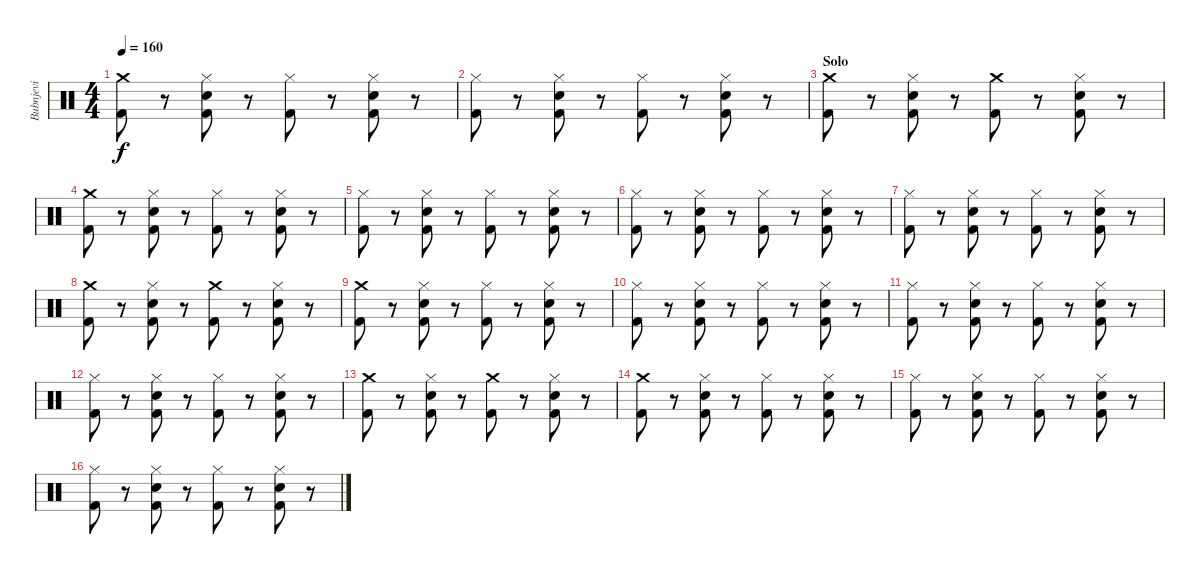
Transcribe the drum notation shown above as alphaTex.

\track ("Bubnjevi" "Bubnjevi") {instrument percussion}
\staff {score}
\articulation defaults
\ts (4 4)
\tempo 160
\clef neutral
\ks c
("Crash medium (hit)" "Kick (hit) 2").8{dy f} r.8 ("Electric Snare (hit)" "Hi-Hat (closed)" "Kick (hit) 2").8 r.8 ("Hi-Hat (closed)" "Kick (hit) 2").8 r.8 ("Electric Snare (hit)" "Hi-Hat (closed)" "Kick (hit) 2").8 r.8 |
("Hi-Hat (closed)" "Kick (hit) 2").8 r.8 ("Electric Snare (hit)" "Hi-Hat (closed)" "Kick (hit) 2").8 r.8 ("Hi-Hat (closed)" "Kick (hit) 2").8 r.8 ("Electric Snare (hit)" "Hi-Hat (closed)" "Kick (hit) 2").8 r.8 |
\section ("" "Solo")
("Crash medium (hit)" "Kick (hit) 2").8 r.8 ("Electric Snare (hit)" "Hi-Hat (closed)" "Kick (hit) 2").8 r.8 ("Crash medium (hit)" "Kick (hit) 2").8 r.8 ("Electric Snare (hit)" "Hi-Hat (closed)" "Kick (hit) 2").8 r.8 |
("Crash medium (hit)" "Kick (hit) 2").8 r.8 ("Electric Snare (hit)" "Hi-Hat (closed)" "Kick (hit) 2").8 r.8 ("Hi-Hat (closed)" "Kick (hit) 2").8 r.8 ("Electric Snare (hit)" "Hi-Hat (closed)" "Kick (hit) 2").8 r.8 |
("Hi-Hat (closed)" "Kick (hit) 2").8 r.8 ("Electric Snare (hit)" "Hi-Hat (closed)" "Kick (hit) 2").8 r.8 ("Hi-Hat (closed)" "Kick (hit) 2").8 r.8 ("Electric Snare (hit)" "Hi-Hat (closed)" "Kick (hit) 2").8 r.8 |
("Hi-Hat (closed)" "Kick (hit) 2").8 r.8 ("Electric Snare (hit)" "Hi-Hat (closed)" "Kick (hit) 2").8 r.8 ("Hi-Hat (closed)" "Kick (hit) 2").8 r.8 ("Electric Snare (hit)" "Hi-Hat (closed)" "Kick (hit) 2").8 r.8 |
("Hi-Hat (closed)" "Kick (hit) 2").8 r.8 ("Electric Snare (hit)" "Hi-Hat (closed)" "Kick (hit) 2").8 r.8 ("Hi-Hat (closed)" "Kick (hit) 2").8 r.8 ("Electric Snare (hit)" "Hi-Hat (closed)" "Kick (hit) 2").8 r.8 |
("Crash medium (hit)" "Kick (hit) 2").8 r.8 ("Electric Snare (hit)" "Hi-Hat (closed)" "Kick (hit) 2").8 r.8 ("Crash medium (hit)" "Kick (hit) 2").8 r.8 ("Electric Snare (hit)" "Hi-Hat (closed)" "Kick (hit) 2").8 r.8 |
("Crash medium (hit)" "Kick (hit) 2").8 r.8 ("Electric Snare (hit)" "Hi-Hat (closed)" "Kick (hit) 2").8 r.8 ("Hi-Hat (closed)" "Kick (hit) 2").8 r.8 ("Electric Snare (hit)" "Hi-Hat (closed)" "Kick (hit) 2").8 r.8 |
("Hi-Hat (closed)" "Kick (hit) 2").8 r.8 ("Electric Snare (hit)" "Hi-Hat (closed)" "Kick (hit) 2").8 r.8 ("Hi-Hat (closed)" "Kick (hit) 2").8 r.8 ("Electric Snare (hit)" "Hi-Hat (closed)" "Kick (hit) 2").8 r.8 |
("Hi-Hat (closed)" "Kick (hit) 2").8 r.8 ("Electric Snare (hit)" "Hi-Hat (closed)" "Kick (hit) 2").8 r.8 ("Hi-Hat (closed)" "Kick (hit) 2").8 r.8 ("Electric Snare (hit)" "Hi-Hat (closed)" "Kick (hit) 2").8 r.8 |
("Hi-Hat (closed)" "Kick (hit) 2").8 r.8 ("Electric Snare (hit)" "Hi-Hat (closed)" "Kick (hit) 2").8 r.8 ("Hi-Hat (closed)" "Kick (hit) 2").8 r.8 ("Electric Snare (hit)" "Hi-Hat (closed)" "Kick (hit) 2").8 r.8 |
("Crash medium (hit)" "Kick (hit) 2").8 r.8 ("Electric Snare (hit)" "Hi-Hat (closed)" "Kick (hit) 2").8 r.8 ("Crash medium (hit)" "Kick (hit) 2").8 r.8 ("Electric Snare (hit)" "Hi-Hat (closed)" "Kick (hit) 2").8 r.8 |
("Crash medium (hit)" "Kick (hit) 2").8 r.8 ("Electric Snare (hit)" "Hi-Hat (closed)" "Kick (hit) 2").8 r.8 ("Hi-Hat (closed)" "Kick (hit) 2").8 r.8 ("Electric Snare (hit)" "Hi-Hat (closed)" "Kick (hit) 2").8 r.8 |
("Hi-Hat (closed)" "Kick (hit) 2").8 r.8 ("Electric Snare (hit)" "Hi-Hat (closed)" "Kick (hit) 2").8 r.8 ("Hi-Hat (closed)" "Kick (hit) 2").8 r.8 ("Electric Snare (hit)" "Hi-Hat (closed)" "Kick (hit) 2").8 r.8 |
("Hi-Hat (closed)" "Kick (hit) 2").8 r.8 ("Electric Snare (hit)" "Hi-Hat (closed)" "Kick (hit) 2").8 r.8 ("Hi-Hat (closed)" "Kick (hit) 2").8 r.8 ("Electric Snare (hit)" "Hi-Hat (closed)" "Kick (hit) 2").8 r.8
